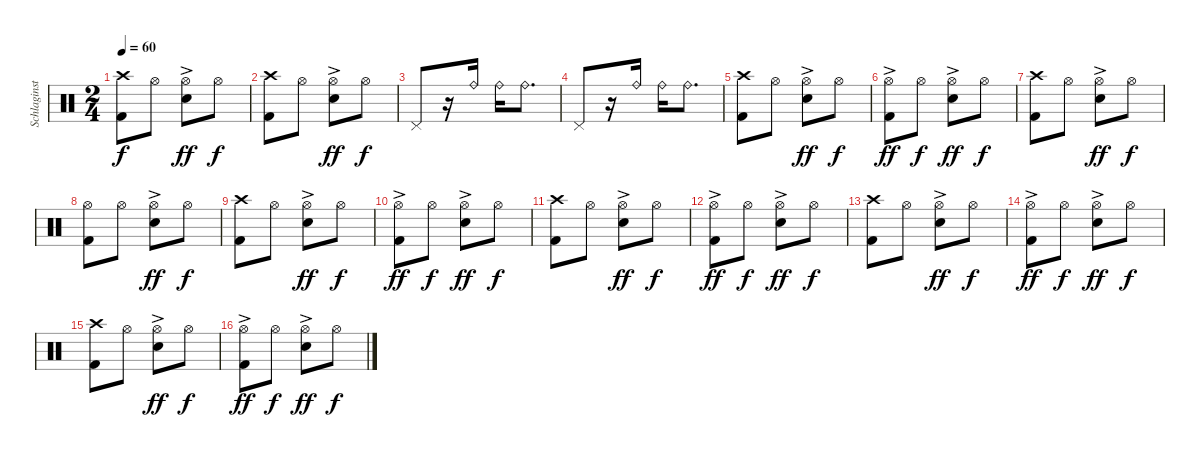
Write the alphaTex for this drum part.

\track ("Schlaginstrumente - Auswahl" "Schlaginst") {instrument percussion}
\staff {score}
\articulation defaults
\ts (2 4)
\tempo 60
\clef neutral
\ks c
("Crash high (hit)" "Kick (hit) 2").8{dy f} "Hi-Hat (open)".8 ("Hi-Hat (open)"{ac} "Snare (hit) 2").8{dy ff} "Hi-Hat (open)".8{dy f} |
("Crash high (hit)" "Kick (hit) 2").8 "Hi-Hat (open)".8 ("Hi-Hat (open)"{ac} "Snare (hit) 2").8{dy ff} "Hi-Hat (open)".8{dy f} |
"Pedal Hi-Hat (hit)".8 r.16 "Ride (bell)".16 "Ride (bell)".16 "Ride (bell)".8{d} |
"Pedal Hi-Hat (hit)".8 r.16 "Ride (bell)".16 "Ride (bell)".16 "Ride (bell)".8{d} |
("Crash high (hit)" "Kick (hit) 2").8 "Hi-Hat (open)".8 ("Hi-Hat (open)"{ac} "Snare (hit) 2").8{dy ff} "Hi-Hat (open)".8{dy f} |
("Hi-Hat (open)"{ac} "Kick (hit) 2").8{dy ff} "Hi-Hat (open)".8{dy f} ("Hi-Hat (open)"{ac} "Snare (hit) 2").8{dy ff} "Hi-Hat (open)".8{dy f} |
("Crash high (hit)" "Kick (hit) 2").8 "Hi-Hat (open)".8 ("Hi-Hat (open)"{ac} "Snare (hit) 2").8{dy ff} "Hi-Hat (open)".8{dy f} |
("Hi-Hat (open)" "Kick (hit) 2").8 "Hi-Hat (open)".8 ("Hi-Hat (open)"{ac} "Snare (hit) 2").8{dy ff} "Hi-Hat (open)".8{dy f} |
("Crash high (hit)" "Kick (hit) 2").8 "Hi-Hat (open)".8 ("Hi-Hat (open)"{ac} "Snare (hit) 2").8{dy ff} "Hi-Hat (open)".8{dy f} |
("Hi-Hat (open)"{ac} "Kick (hit) 2").8{dy ff} "Hi-Hat (open)".8{dy f} ("Hi-Hat (open)"{ac} "Snare (hit) 2").8{dy ff} "Hi-Hat (open)".8{dy f} |
("Crash high (hit)" "Kick (hit) 2").8 "Hi-Hat (open)".8 ("Hi-Hat (open)"{ac} "Snare (hit) 2").8{dy ff} "Hi-Hat (open)".8{dy f} |
("Hi-Hat (open)"{ac} "Kick (hit) 2").8{dy ff} "Hi-Hat (open)".8{dy f} ("Hi-Hat (open)"{ac} "Snare (hit) 2").8{dy ff} "Hi-Hat (open)".8{dy f} |
("Crash high (hit)" "Kick (hit) 2").8 "Hi-Hat (open)".8 ("Hi-Hat (open)"{ac} "Snare (hit) 2").8{dy ff} "Hi-Hat (open)".8{dy f} |
("Hi-Hat (open)"{ac} "Kick (hit) 2").8{dy ff} "Hi-Hat (open)".8{dy f} ("Hi-Hat (open)"{ac} "Snare (hit) 2").8{dy ff} "Hi-Hat (open)".8{dy f} |
("Crash high (hit)" "Kick (hit) 2").8 "Hi-Hat (open)".8 ("Hi-Hat (open)"{ac} "Snare (hit) 2").8{dy ff} "Hi-Hat (open)".8{dy f} |
("Hi-Hat (open)"{ac} "Kick (hit) 2").8{dy ff} "Hi-Hat (open)".8{dy f} ("Hi-Hat (open)"{ac} "Snare (hit) 2").8{dy ff} "Hi-Hat (open)".8{dy f}
